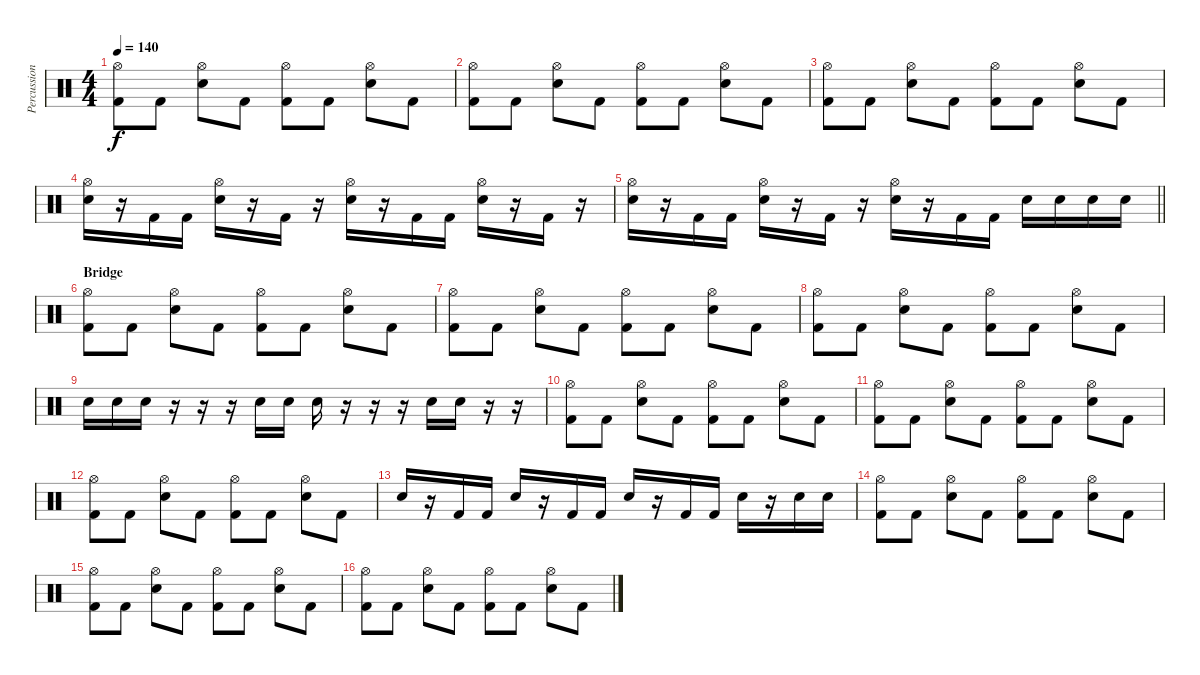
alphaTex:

\track ("Percussion" "Percussion") {instrument percussion}
\staff {score}
\articulation defaults
\ts (4 4)
\tempo 140
\clef neutral
\ks c
("Hi-Hat (open)" "Kick (hit) 2").8{dy f} "Kick (hit) 2".8 ("Hi-Hat (open)" "Snare (hit) 2").8 "Kick (hit) 2".8 ("Hi-Hat (open)" "Kick (hit) 2").8 "Kick (hit) 2".8 ("Hi-Hat (open)" "Snare (hit) 2").8 "Kick (hit) 2".8 |
("Hi-Hat (open)" "Kick (hit) 2").8 "Kick (hit) 2".8 ("Hi-Hat (open)" "Snare (hit) 2").8 "Kick (hit) 2".8 ("Hi-Hat (open)" "Kick (hit) 2").8 "Kick (hit) 2".8 ("Hi-Hat (open)" "Snare (hit) 2").8 "Kick (hit) 2".8 |
("Hi-Hat (open)" "Kick (hit) 2").8 "Kick (hit) 2".8 ("Hi-Hat (open)" "Snare (hit) 2").8 "Kick (hit) 2".8 ("Hi-Hat (open)" "Kick (hit) 2").8 "Kick (hit) 2".8 ("Hi-Hat (open)" "Snare (hit) 2").8 "Kick (hit) 2".8 |
("Hi-Hat (open)" "Snare (hit) 2").16 r.16 "Kick (hit) 2".16 "Kick (hit) 2".16 ("Hi-Hat (open)" "Snare (hit) 2").16 r.16 "Kick (hit) 2".16 r.16 ("Hi-Hat (open)" "Snare (hit) 2").16 r.16 "Kick (hit) 2".16 "Kick (hit) 2".16 ("Hi-Hat (open)" "Snare (hit) 2").16 r.16 "Kick (hit) 2".16 r.16 |
\barLineRight lightlight
("Hi-Hat (open)" "Snare (hit) 2").16 r.16 "Kick (hit) 2".16 "Kick (hit) 2".16 ("Hi-Hat (open)" "Snare (hit) 2").16 r.16 "Kick (hit) 2".16 r.16 ("Hi-Hat (open)" "Snare (hit) 2").16 r.16 "Kick (hit) 2".16 "Kick (hit) 2".16 "Snare (hit) 2".16 "Snare (hit) 2".16 "Snare (hit) 2".16 "Snare (hit) 2".16 |
\section ("" "Bridge")
("Hi-Hat (open)" "Kick (hit) 2").8 "Kick (hit) 2".8 ("Hi-Hat (open)" "Snare (hit) 2").8 "Kick (hit) 2".8 ("Hi-Hat (open)" "Kick (hit) 2").8 "Kick (hit) 2".8 ("Hi-Hat (open)" "Snare (hit) 2").8 "Kick (hit) 2".8 |
("Hi-Hat (open)" "Kick (hit) 2").8 "Kick (hit) 2".8 ("Hi-Hat (open)" "Snare (hit) 2").8 "Kick (hit) 2".8 ("Hi-Hat (open)" "Kick (hit) 2").8 "Kick (hit) 2".8 ("Hi-Hat (open)" "Snare (hit) 2").8 "Kick (hit) 2".8 |
("Hi-Hat (open)" "Kick (hit) 2").8 "Kick (hit) 2".8 ("Hi-Hat (open)" "Snare (hit) 2").8 "Kick (hit) 2".8 ("Hi-Hat (open)" "Kick (hit) 2").8 "Kick (hit) 2".8 ("Hi-Hat (open)" "Snare (hit) 2").8 "Kick (hit) 2".8 |
"Snare (hit) 2".16 "Snare (hit) 2".16 "Snare (hit) 2".16 r.16 r.16 r.16 "Snare (hit) 2".16 "Snare (hit) 2".16 "Snare (hit) 2".16 r.16 r.16 r.16 "Snare (hit) 2".16 "Snare (hit) 2".16 r.16 r.16 |
("Hi-Hat (open)" "Kick (hit) 2").8 "Kick (hit) 2".8 ("Hi-Hat (open)" "Snare (hit) 2").8 "Kick (hit) 2".8 ("Hi-Hat (open)" "Kick (hit) 2").8 "Kick (hit) 2".8 ("Hi-Hat (open)" "Snare (hit) 2").8 "Kick (hit) 2".8 |
("Hi-Hat (open)" "Kick (hit) 2").8 "Kick (hit) 2".8 ("Hi-Hat (open)" "Snare (hit) 2").8 "Kick (hit) 2".8 ("Hi-Hat (open)" "Kick (hit) 2").8 "Kick (hit) 2".8 ("Hi-Hat (open)" "Snare (hit) 2").8 "Kick (hit) 2".8 |
("Hi-Hat (open)" "Kick (hit) 2").8 "Kick (hit) 2".8 ("Hi-Hat (open)" "Snare (hit) 2").8 "Kick (hit) 2".8 ("Hi-Hat (open)" "Kick (hit) 2").8 "Kick (hit) 2".8 ("Hi-Hat (open)" "Snare (hit) 2").8 "Kick (hit) 2".8 |
"Snare (hit) 2".16 r.16 "Kick (hit) 2".16 "Kick (hit) 2".16 "Snare (hit) 2".16 r.16 "Kick (hit) 2".16 "Kick (hit) 2".16 "Snare (hit) 2".16 r.16 "Kick (hit) 2".16 "Kick (hit) 2".16 "Snare (hit) 2".16 r.16 "Snare (hit) 2".16 "Snare (hit) 2".16 |
("Hi-Hat (open)" "Kick (hit) 2").8 "Kick (hit) 2".8 ("Hi-Hat (open)" "Snare (hit) 2").8 "Kick (hit) 2".8 ("Hi-Hat (open)" "Kick (hit) 2").8 "Kick (hit) 2".8 ("Hi-Hat (open)" "Snare (hit) 2").8 "Kick (hit) 2".8 |
("Hi-Hat (open)" "Kick (hit) 2").8 "Kick (hit) 2".8 ("Hi-Hat (open)" "Snare (hit) 2").8 "Kick (hit) 2".8 ("Hi-Hat (open)" "Kick (hit) 2").8 "Kick (hit) 2".8 ("Hi-Hat (open)" "Snare (hit) 2").8 "Kick (hit) 2".8 |
("Hi-Hat (open)" "Kick (hit) 2").8 "Kick (hit) 2".8 ("Hi-Hat (open)" "Snare (hit) 2").8 "Kick (hit) 2".8 ("Hi-Hat (open)" "Kick (hit) 2").8 "Kick (hit) 2".8 ("Hi-Hat (open)" "Snare (hit) 2").8 "Kick (hit) 2".8
